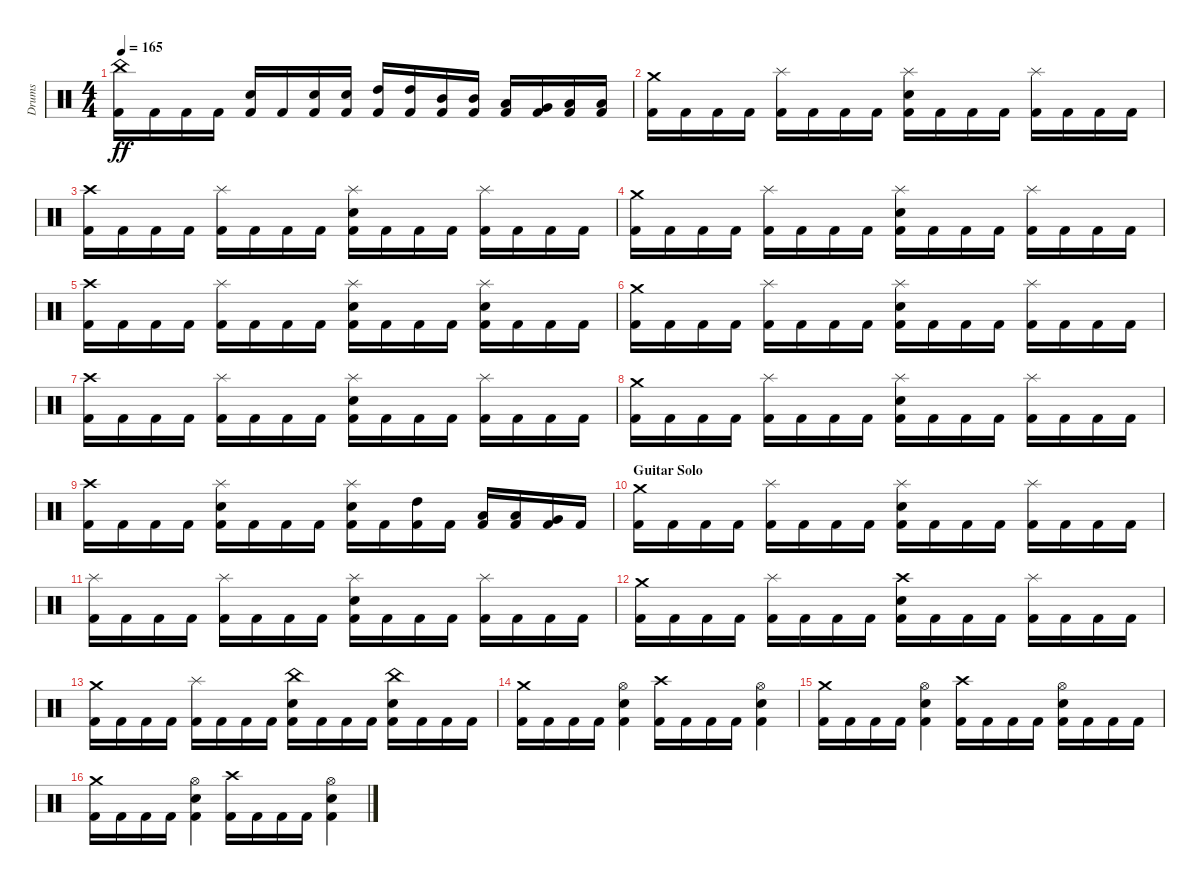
\track ("Drums" "Drums") {instrument percussion}
\staff {score}
\articulation defaults
\ts (4 4)
\tempo 165
\clef neutral
\ks c
("China (hit)" "Kick (hit) 2").16{dy ff} "Kick (hit) 2".16 "Kick (hit) 2".16 "Kick (hit) 2".16 ("Electric Snare (hit)" "Kick (hit) 2").16 "Kick (hit) 2".16 ("Electric Snare (hit)" "Kick (hit) 2").16 ("Electric Snare (hit)" "Kick (hit) 2").16 ("High Tom (hit)" "Kick (hit) 2").16 ("High Tom (hit)" "Kick (hit) 2").16 ("Mid Tom (hit)" "Kick (hit) 2").16 ("Mid Tom (hit)" "Kick (hit) 2").16 ("Low Tom (hit)" "Kick (hit) 2").16 ("Very Low Tom (hit)" "Kick (hit) 2").16 ("Low Tom (hit)" "Kick (hit) 2").16 ("Low Floor Tom (hit)" "Kick (hit) 2").16 |
("Crash medium (hit)" "Kick (hit) 2").16 "Kick (hit) 2".16 "Kick (hit) 2".16 "Kick (hit) 2".16 ("Splash (hit)" "Kick (hit) 2").16 "Kick (hit) 2".16 "Kick (hit) 2".16 "Kick (hit) 2".16 ("Splash (hit)" "Electric Snare (hit)" "Kick (hit) 2").16 "Kick (hit) 2".16 "Kick (hit) 2".16 "Kick (hit) 2".16 ("Splash (hit)" "Kick (hit) 2").16 "Kick (hit) 2".16 "Kick (hit) 2".16 "Kick (hit) 2".16 |
("Crash high (hit)" "Kick (hit) 2").16 "Kick (hit) 2".16 "Kick (hit) 2".16 "Kick (hit) 2".16 ("Splash (hit)" "Kick (hit) 2").16 "Kick (hit) 2".16 "Kick (hit) 2".16 "Kick (hit) 2".16 ("Splash (hit)" "Electric Snare (hit)" "Kick (hit) 2").16 "Kick (hit) 2".16 "Kick (hit) 2".16 "Kick (hit) 2".16 ("Splash (hit)" "Kick (hit) 2").16 "Kick (hit) 2".16 "Kick (hit) 2".16 "Kick (hit) 2".16 |
("Crash medium (hit)" "Kick (hit) 2").16 "Kick (hit) 2".16 "Kick (hit) 2".16 "Kick (hit) 2".16 ("Splash (hit)" "Kick (hit) 2").16 "Kick (hit) 2".16 "Kick (hit) 2".16 "Kick (hit) 2".16 ("Splash (hit)" "Electric Snare (hit)" "Kick (hit) 2").16 "Kick (hit) 2".16 "Kick (hit) 2".16 "Kick (hit) 2".16 ("Splash (hit)" "Kick (hit) 2").16 "Kick (hit) 2".16 "Kick (hit) 2".16 "Kick (hit) 2".16 |
("Crash high (hit)" "Kick (hit) 2").16 "Kick (hit) 2".16 "Kick (hit) 2".16 "Kick (hit) 2".16 ("Splash (hit)" "Kick (hit) 2").16 "Kick (hit) 2".16 "Kick (hit) 2".16 "Kick (hit) 2".16 ("Splash (hit)" "Electric Snare (hit)" "Kick (hit) 2").16 "Kick (hit) 2".16 "Kick (hit) 2".16 "Kick (hit) 2".16 ("Splash (hit)" "Electric Snare (hit)" "Kick (hit) 2").16 "Kick (hit) 2".16 "Kick (hit) 2".16 "Kick (hit) 2".16 |
("Crash medium (hit)" "Kick (hit) 2").16 "Kick (hit) 2".16 "Kick (hit) 2".16 "Kick (hit) 2".16 ("Splash (hit)" "Kick (hit) 2").16 "Kick (hit) 2".16 "Kick (hit) 2".16 "Kick (hit) 2".16 ("Splash (hit)" "Electric Snare (hit)" "Kick (hit) 2").16 "Kick (hit) 2".16 "Kick (hit) 2".16 "Kick (hit) 2".16 ("Splash (hit)" "Kick (hit) 2").16 "Kick (hit) 2".16 "Kick (hit) 2".16 "Kick (hit) 2".16 |
("Crash high (hit)" "Kick (hit) 2").16 "Kick (hit) 2".16 "Kick (hit) 2".16 "Kick (hit) 2".16 ("Splash (hit)" "Kick (hit) 2").16 "Kick (hit) 2".16 "Kick (hit) 2".16 "Kick (hit) 2".16 ("Splash (hit)" "Electric Snare (hit)" "Kick (hit) 2").16 "Kick (hit) 2".16 "Kick (hit) 2".16 "Kick (hit) 2".16 ("Splash (hit)" "Kick (hit) 2").16 "Kick (hit) 2".16 "Kick (hit) 2".16 "Kick (hit) 2".16 |
("Crash medium (hit)" "Kick (hit) 2").16 "Kick (hit) 2".16 "Kick (hit) 2".16 "Kick (hit) 2".16 ("Splash (hit)" "Kick (hit) 2").16 "Kick (hit) 2".16 "Kick (hit) 2".16 "Kick (hit) 2".16 ("Splash (hit)" "Electric Snare (hit)" "Kick (hit) 2").16 "Kick (hit) 2".16 "Kick (hit) 2".16 "Kick (hit) 2".16 ("Splash (hit)" "Kick (hit) 2").16 "Kick (hit) 2".16 "Kick (hit) 2".16 "Kick (hit) 2".16 |
("Crash high (hit)" "Kick (hit) 2").16 "Kick (hit) 2".16 "Kick (hit) 2".16 "Kick (hit) 2".16 ("Splash (hit)" "Electric Snare (hit)" "Kick (hit) 2").16 "Kick (hit) 2".16 "Kick (hit) 2".16 "Kick (hit) 2".16 ("Splash (hit)" "Electric Snare (hit)" "Kick (hit) 2").16 "Kick (hit) 2".16 ("High Tom (hit)" "Kick (hit) 2").16 "Kick (hit) 2".16 ("Low Tom (hit)" "Kick (hit) 2").16 ("Low Tom (hit)" "Kick (hit) 2").16 ("Very Low Tom (hit)" "Kick (hit) 2").16 "Kick (hit) 2".16 |
\section ("" "Guitar Solo")
("Crash medium (hit)" "Kick (hit) 2").16 "Kick (hit) 2".16 "Kick (hit) 2".16 "Kick (hit) 2".16 ("Splash (hit)" "Kick (hit) 2").16 "Kick (hit) 2".16 "Kick (hit) 2".16 "Kick (hit) 2".16 ("Splash (hit)" "Electric Snare (hit)" "Kick (hit) 2").16 "Kick (hit) 2".16 "Kick (hit) 2".16 "Kick (hit) 2".16 ("Splash (hit)" "Kick (hit) 2").16 "Kick (hit) 2".16 "Kick (hit) 2".16 "Kick (hit) 2".16 |
("Splash (hit)" "Kick (hit) 2").16 "Kick (hit) 2".16 "Kick (hit) 2".16 "Kick (hit) 2".16 ("Splash (hit)" "Kick (hit) 2").16 "Kick (hit) 2".16 "Kick (hit) 2".16 "Kick (hit) 2".16 ("Splash (hit)" "Electric Snare (hit)" "Kick (hit) 2").16 "Kick (hit) 2".16 "Kick (hit) 2".16 "Kick (hit) 2".16 ("Splash (hit)" "Kick (hit) 2").16 "Kick (hit) 2".16 "Kick (hit) 2".16 "Kick (hit) 2".16 |
("Crash medium (hit)" "Kick (hit) 2").16 "Kick (hit) 2".16 "Kick (hit) 2".16 "Kick (hit) 2".16 ("Splash (hit)" "Kick (hit) 2").16 "Kick (hit) 2".16 "Kick (hit) 2".16 "Kick (hit) 2".16 ("Crash high (hit)" "Electric Snare (hit)" "Kick (hit) 2").16 "Kick (hit) 2".16 "Kick (hit) 2".16 "Kick (hit) 2".16 ("Splash (hit)" "Kick (hit) 2").16 "Kick (hit) 2".16 "Kick (hit) 2".16 "Kick (hit) 2".16 |
("Crash medium (hit)" "Kick (hit) 2").16 "Kick (hit) 2".16 "Kick (hit) 2".16 "Kick (hit) 2".16 ("Splash (hit)" "Kick (hit) 2").16 "Kick (hit) 2".16 "Kick (hit) 2".16 "Kick (hit) 2".16 ("China (hit)" "Electric Snare (hit)" "Kick (hit) 2").16 "Kick (hit) 2".16 "Kick (hit) 2".16 "Kick (hit) 2".16 ("China (hit)" "Electric Snare (hit)" "Kick (hit) 2").16 "Kick (hit) 2".16 "Kick (hit) 2".16 "Kick (hit) 2".16 |
("Crash medium (hit)" "Kick (hit) 2").16 "Kick (hit) 2".16 "Kick (hit) 2".16 "Kick (hit) 2".16 ("Hi-Hat (open)" "Electric Snare (hit)" "Kick (hit) 2").4 ("Crash high (hit)" "Kick (hit) 2").16 "Kick (hit) 2".16 "Kick (hit) 2".16 "Kick (hit) 2".16 ("Hi-Hat (open)" "Electric Snare (hit)" "Kick (hit) 2").4 |
("Crash medium (hit)" "Kick (hit) 2").16 "Kick (hit) 2".16 "Kick (hit) 2".16 "Kick (hit) 2".16 ("Hi-Hat (open)" "Electric Snare (hit)" "Kick (hit) 2").4 ("Crash high (hit)" "Kick (hit) 2").16 "Kick (hit) 2".16 "Kick (hit) 2".16 "Kick (hit) 2".16 ("Hi-Hat (open)" "Electric Snare (hit)" "Kick (hit) 2").16 "Kick (hit) 2".16 "Kick (hit) 2".16 "Kick (hit) 2".16 |
("Crash medium (hit)" "Kick (hit) 2").16 "Kick (hit) 2".16 "Kick (hit) 2".16 "Kick (hit) 2".16 ("Hi-Hat (open)" "Electric Snare (hit)" "Kick (hit) 2").4 ("Crash high (hit)" "Kick (hit) 2").16 "Kick (hit) 2".16 "Kick (hit) 2".16 "Kick (hit) 2".16 ("Hi-Hat (open)" "Electric Snare (hit)" "Kick (hit) 2").4
